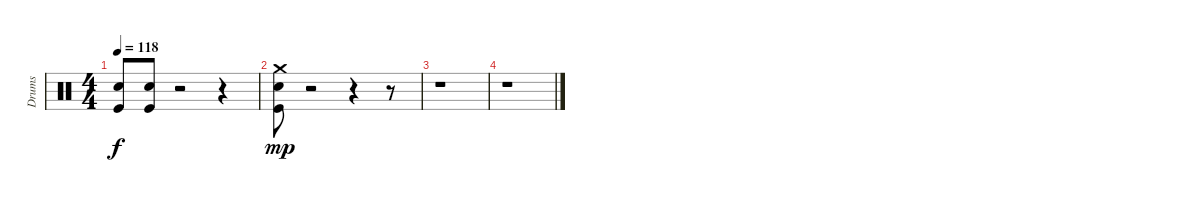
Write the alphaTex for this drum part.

\track ("Drums" "Drums") {instrument percussion}
\staff {score}
\articulation defaults
\ts (4 4)
\tempo 118
\clef neutral
\ks c
("Kick (hit)" "Electric Snare (hit)").8{dy f} ("Kick (hit)" "Electric Snare (hit)").8 r.2 r.4 |
("Electric Snare (hit)" "Crash medium (hit)" "Kick (hit)").8{dy mp} r.2 r.4 r.8 |
r.1 |
r.1
